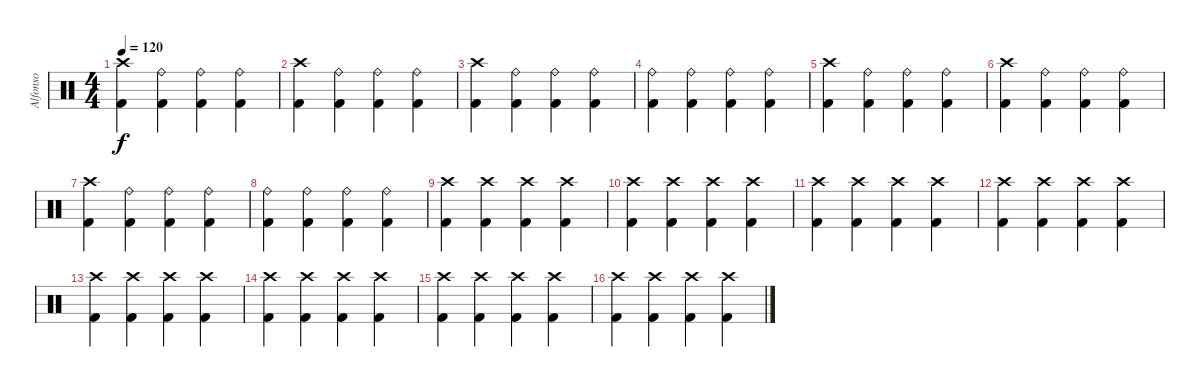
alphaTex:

\track ("Alfonso" "Alfonso") {instrument percussion}
\staff {score}
\articulation defaults
\ts (4 4)
\tempo 120
\clef neutral
\ks c
("Crash high (hit)" "Kick (hit) 2").4{dy f} ("Ride (bell)" "Kick (hit) 2").4 ("Ride (bell)" "Kick (hit) 2").4 ("Ride (bell)" "Kick (hit) 2").4 |
("Crash high (hit)" "Kick (hit) 2").4 ("Ride (bell)" "Kick (hit) 2").4 ("Ride (bell)" "Kick (hit) 2").4 ("Ride (bell)" "Kick (hit) 2").4 |
("Crash high (hit)" "Kick (hit) 2").4 ("Ride (bell)" "Kick (hit) 2").4 ("Ride (bell)" "Kick (hit) 2").4 ("Ride (bell)" "Kick (hit) 2").4 |
("Ride (bell)" "Kick (hit) 2").4 ("Ride (bell)" "Kick (hit) 2").4 ("Ride (bell)" "Kick (hit) 2").4 ("Ride (bell)" "Kick (hit) 2").4 |
("Crash high (hit)" "Kick (hit) 2").4 ("Ride (bell)" "Kick (hit) 2").4 ("Ride (bell)" "Kick (hit) 2").4 ("Ride (bell)" "Kick (hit) 2").4 |
("Crash high (hit)" "Kick (hit) 2").4 ("Ride (bell)" "Kick (hit) 2").4 ("Ride (bell)" "Kick (hit) 2").4 ("Ride (bell)" "Kick (hit) 2").4 |
("Crash high (hit)" "Kick (hit) 2").4 ("Ride (bell)" "Kick (hit) 2").4 ("Ride (bell)" "Kick (hit) 2").4 ("Ride (bell)" "Kick (hit) 2").4 |
("Ride (bell)" "Kick (hit) 2").4 ("Ride (bell)" "Kick (hit) 2").4 ("Ride (bell)" "Kick (hit) 2").4 ("Ride (bell)" "Kick (hit) 2").4 |
("Crash high (hit)" "Kick (hit) 2").4 ("Crash high (hit)" "Kick (hit) 2").4 ("Crash high (hit)" "Kick (hit) 2").4 ("Crash high (hit)" "Kick (hit) 2").4 |
("Crash high (hit)" "Kick (hit) 2").4 ("Crash high (hit)" "Kick (hit) 2").4 ("Crash high (hit)" "Kick (hit) 2").4 ("Crash high (hit)" "Kick (hit) 2").4 |
("Crash high (hit)" "Kick (hit) 2").4 ("Crash high (hit)" "Kick (hit) 2").4 ("Crash high (hit)" "Kick (hit) 2").4 ("Crash high (hit)" "Kick (hit) 2").4 |
("Crash high (hit)" "Kick (hit) 2").4 ("Crash high (hit)" "Kick (hit) 2").4 ("Crash high (hit)" "Kick (hit) 2").4 ("Crash high (hit)" "Kick (hit) 2").4 |
("Crash high (hit)" "Kick (hit) 2").4 ("Crash high (hit)" "Kick (hit) 2").4 ("Crash high (hit)" "Kick (hit) 2").4 ("Crash high (hit)" "Kick (hit) 2").4 |
("Crash high (hit)" "Kick (hit) 2").4 ("Crash high (hit)" "Kick (hit) 2").4 ("Crash high (hit)" "Kick (hit) 2").4 ("Crash high (hit)" "Kick (hit) 2").4 |
("Crash high (hit)" "Kick (hit) 2").4 ("Crash high (hit)" "Kick (hit) 2").4 ("Crash high (hit)" "Kick (hit) 2").4 ("Crash high (hit)" "Kick (hit) 2").4 |
("Crash high (hit)" "Kick (hit) 2").4 ("Crash high (hit)" "Kick (hit) 2").4 ("Crash high (hit)" "Kick (hit) 2").4 ("Crash high (hit)" "Kick (hit) 2").4
